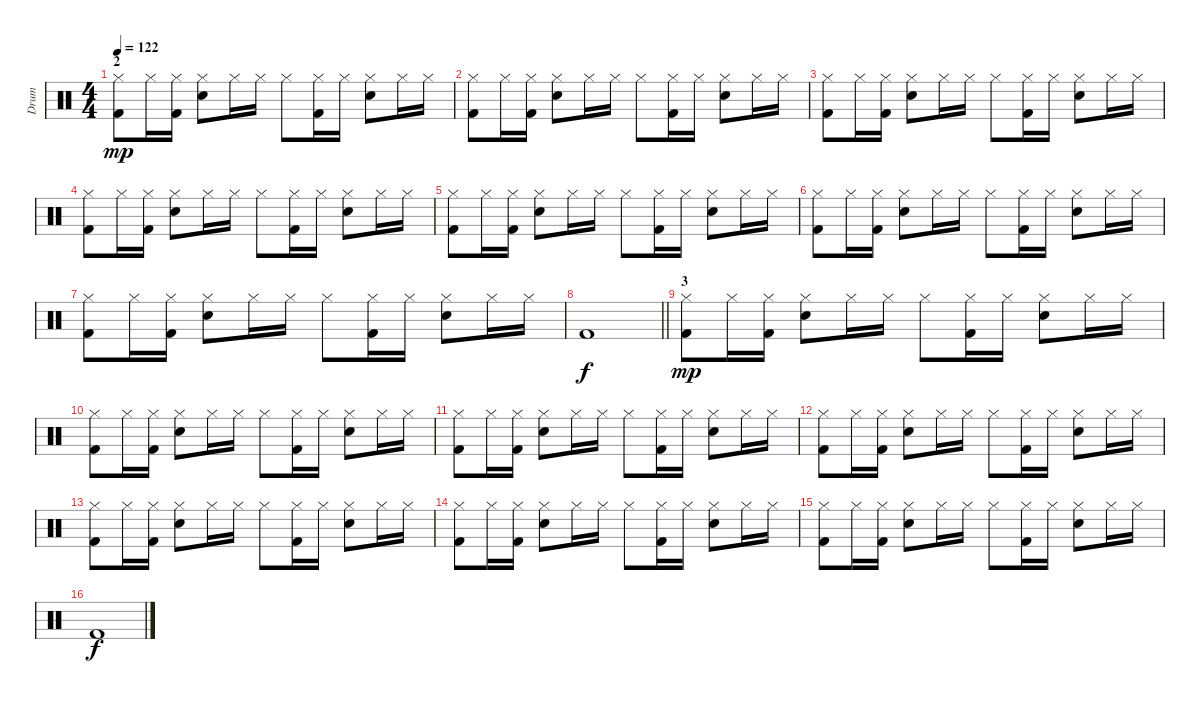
\track ("Drum" "Drum") {instrument percussion}
\staff {score}
\articulation defaults
\ts (4 4)
\section ("" "2")
\tempo 122
\clef neutral
\ks c
("Hi-Hat (closed)" "Kick (hit) 2").8{dy mp} "Hi-Hat (closed)".16 ("Hi-Hat (closed)" "Kick (hit) 2").16 ("Hi-Hat (closed)" "Electric Snare (hit)").8 "Hi-Hat (closed)".16 "Hi-Hat (closed)".16 "Hi-Hat (closed)".8 ("Hi-Hat (closed)" "Kick (hit) 2").16 "Hi-Hat (closed)".16 ("Hi-Hat (closed)" "Electric Snare (hit)").8 "Hi-Hat (closed)".16 "Hi-Hat (closed)".16 |
("Hi-Hat (closed)" "Kick (hit) 2").8 "Hi-Hat (closed)".16 ("Hi-Hat (closed)" "Kick (hit) 2").16 ("Hi-Hat (closed)" "Electric Snare (hit)").8 "Hi-Hat (closed)".16 "Hi-Hat (closed)".16 "Hi-Hat (closed)".8 ("Hi-Hat (closed)" "Kick (hit) 2").16 "Hi-Hat (closed)".16 ("Hi-Hat (closed)" "Electric Snare (hit)").8 "Hi-Hat (closed)".16 "Hi-Hat (closed)".16 |
("Hi-Hat (closed)" "Kick (hit) 2").8 "Hi-Hat (closed)".16 ("Hi-Hat (closed)" "Kick (hit) 2").16 ("Hi-Hat (closed)" "Electric Snare (hit)").8 "Hi-Hat (closed)".16 "Hi-Hat (closed)".16 "Hi-Hat (closed)".8 ("Hi-Hat (closed)" "Kick (hit) 2").16 "Hi-Hat (closed)".16 ("Hi-Hat (closed)" "Electric Snare (hit)").8 "Hi-Hat (closed)".16 "Hi-Hat (closed)".16 |
("Hi-Hat (closed)" "Kick (hit) 2").8 "Hi-Hat (closed)".16 ("Hi-Hat (closed)" "Kick (hit) 2").16 ("Hi-Hat (closed)" "Electric Snare (hit)").8 "Hi-Hat (closed)".16 "Hi-Hat (closed)".16 "Hi-Hat (closed)".8 ("Hi-Hat (closed)" "Kick (hit) 2").16 "Hi-Hat (closed)".16 ("Hi-Hat (closed)" "Electric Snare (hit)").8 "Hi-Hat (closed)".16 "Hi-Hat (closed)".16 |
("Hi-Hat (closed)" "Kick (hit) 2").8 "Hi-Hat (closed)".16 ("Hi-Hat (closed)" "Kick (hit) 2").16 ("Hi-Hat (closed)" "Electric Snare (hit)").8 "Hi-Hat (closed)".16 "Hi-Hat (closed)".16 "Hi-Hat (closed)".8 ("Hi-Hat (closed)" "Kick (hit) 2").16 "Hi-Hat (closed)".16 ("Hi-Hat (closed)" "Electric Snare (hit)").8 "Hi-Hat (closed)".16 "Hi-Hat (closed)".16 |
("Hi-Hat (closed)" "Kick (hit) 2").8 "Hi-Hat (closed)".16 ("Hi-Hat (closed)" "Kick (hit) 2").16 ("Hi-Hat (closed)" "Electric Snare (hit)").8 "Hi-Hat (closed)".16 "Hi-Hat (closed)".16 "Hi-Hat (closed)".8 ("Hi-Hat (closed)" "Kick (hit) 2").16 "Hi-Hat (closed)".16 ("Hi-Hat (closed)" "Electric Snare (hit)").8 "Hi-Hat (closed)".16 "Hi-Hat (closed)".16 |
("Hi-Hat (closed)" "Kick (hit) 2").8 "Hi-Hat (closed)".16 ("Hi-Hat (closed)" "Kick (hit) 2").16 ("Hi-Hat (closed)" "Electric Snare (hit)").8 "Hi-Hat (closed)".16 "Hi-Hat (closed)".16 "Hi-Hat (closed)".8 ("Hi-Hat (closed)" "Kick (hit) 2").16 "Hi-Hat (closed)".16 ("Hi-Hat (closed)" "Electric Snare (hit)").8 "Hi-Hat (closed)".16 "Hi-Hat (closed)".16 |
\barLineRight lightlight "Kick (hit) 2".1{dy f}
|
\section ("" "3")
("Hi-Hat (closed)" "Kick (hit) 2").8{dy mp} "Hi-Hat (closed)".16 ("Hi-Hat (closed)" "Kick (hit) 2").16 ("Hi-Hat (closed)" "Electric Snare (hit)").8 "Hi-Hat (closed)".16 "Hi-Hat (closed)".16 "Hi-Hat (closed)".8 ("Hi-Hat (closed)" "Kick (hit) 2").16 "Hi-Hat (closed)".16 ("Hi-Hat (closed)" "Electric Snare (hit)").8 "Hi-Hat (closed)".16 "Hi-Hat (closed)".16 |
("Hi-Hat (closed)" "Kick (hit) 2").8 "Hi-Hat (closed)".16 ("Hi-Hat (closed)" "Kick (hit) 2").16 ("Hi-Hat (closed)" "Electric Snare (hit)").8 "Hi-Hat (closed)".16 "Hi-Hat (closed)".16 "Hi-Hat (closed)".8 ("Hi-Hat (closed)" "Kick (hit) 2").16 "Hi-Hat (closed)".16 ("Hi-Hat (closed)" "Electric Snare (hit)").8 "Hi-Hat (closed)".16 "Hi-Hat (closed)".16 |
("Hi-Hat (closed)" "Kick (hit) 2").8 "Hi-Hat (closed)".16 ("Hi-Hat (closed)" "Kick (hit) 2").16 ("Hi-Hat (closed)" "Electric Snare (hit)").8 "Hi-Hat (closed)".16 "Hi-Hat (closed)".16 "Hi-Hat (closed)".8 ("Hi-Hat (closed)" "Kick (hit) 2").16 "Hi-Hat (closed)".16 ("Hi-Hat (closed)" "Electric Snare (hit)").8 "Hi-Hat (closed)".16 "Hi-Hat (closed)".16 |
("Hi-Hat (closed)" "Kick (hit) 2").8 "Hi-Hat (closed)".16 ("Hi-Hat (closed)" "Kick (hit) 2").16 ("Hi-Hat (closed)" "Electric Snare (hit)").8 "Hi-Hat (closed)".16 "Hi-Hat (closed)".16 "Hi-Hat (closed)".8 ("Hi-Hat (closed)" "Kick (hit) 2").16 "Hi-Hat (closed)".16 ("Hi-Hat (closed)" "Electric Snare (hit)").8 "Hi-Hat (closed)".16 "Hi-Hat (closed)".16 |
("Hi-Hat (closed)" "Kick (hit) 2").8 "Hi-Hat (closed)".16 ("Hi-Hat (closed)" "Kick (hit) 2").16 ("Hi-Hat (closed)" "Electric Snare (hit)").8 "Hi-Hat (closed)".16 "Hi-Hat (closed)".16 "Hi-Hat (closed)".8 ("Hi-Hat (closed)" "Kick (hit) 2").16 "Hi-Hat (closed)".16 ("Hi-Hat (closed)" "Electric Snare (hit)").8 "Hi-Hat (closed)".16 "Hi-Hat (closed)".16 |
("Hi-Hat (closed)" "Kick (hit) 2").8 "Hi-Hat (closed)".16 ("Hi-Hat (closed)" "Kick (hit) 2").16 ("Hi-Hat (closed)" "Electric Snare (hit)").8 "Hi-Hat (closed)".16 "Hi-Hat (closed)".16 "Hi-Hat (closed)".8 ("Hi-Hat (closed)" "Kick (hit) 2").16 "Hi-Hat (closed)".16 ("Hi-Hat (closed)" "Electric Snare (hit)").8 "Hi-Hat (closed)".16 "Hi-Hat (closed)".16 |
("Hi-Hat (closed)" "Kick (hit) 2").8 "Hi-Hat (closed)".16 ("Hi-Hat (closed)" "Kick (hit) 2").16 ("Hi-Hat (closed)" "Electric Snare (hit)").8 "Hi-Hat (closed)".16 "Hi-Hat (closed)".16 "Hi-Hat (closed)".8 ("Hi-Hat (closed)" "Kick (hit) 2").16 "Hi-Hat (closed)".16 ("Hi-Hat (closed)" "Electric Snare (hit)").8 "Hi-Hat (closed)".16 "Hi-Hat (closed)".16 |
"Kick (hit) 2".1{dy f}
